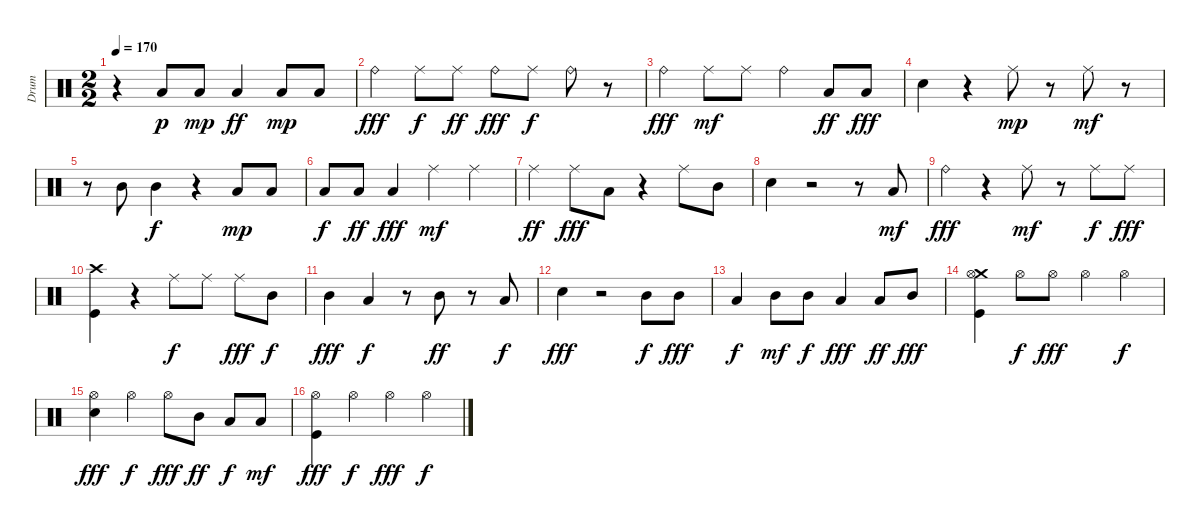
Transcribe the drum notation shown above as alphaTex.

\track ("Drum" "Drum") {instrument percussion}
\staff {score}
\articulation defaults
\ts (2 2)
\tempo 170
\clef neutral
\ks c
r.4{dy fff} "Low Tom (hit)".8{dy p} "Low Tom (hit)".8{dy mp} "Low Tom (hit)".4{dy ff} "Low Floor Tom (hit)".8{dy mp} "Low Floor Tom (hit)".8 |
"Ride (bell)".4{dy fff} "Ride (middle)".8{dy f} "Ride (middle)".8{dy ff} "Ride (bell)".8{dy fff} "Ride (middle)".8{dy f} "Ride (bell)".8 r.8 |
"Ride (bell)".4{dy fff} "Ride (middle)".8{dy mf} "Ride (middle)".8 "Ride (bell)".4 "Low Tom (hit)".8{dy ff} "Low Floor Tom (hit)".8{dy fff} |
"Electric Snare (hit)".4 r.4 "Ride (middle)".8{dy mp} r.8 "Ride (middle)".8{dy mf} r.8 |
r.8 "Mid Tom (hit)".8 "Mid Tom (hit)".4{dy f} r.4 "Low Floor Tom (hit)".8{dy mp} "Low Floor Tom (hit)".8 |
"Low Floor Tom (hit)".8{dy f} "Low Floor Tom (hit)".8{dy ff} "Low Floor Tom (hit)".4{dy fff} "Ride (middle)".4{dy mf} "Ride (middle)".4 |
"Ride (middle)".4{dy ff} "Ride (middle)".8{dy fff} "Low Floor Tom (hit)".8 r.4 "Ride (middle)".8 "Mid Tom (hit)".8 |
"Electric Snare (hit)".4 r.2 r.8 "Low Floor Tom (hit)".8{dy mf} |
"Ride (bell)".4{dy fff} r.4 "Ride (middle)".8{dy mf} r.8 "Ride (middle)".8{dy f} "Ride (middle)".8{dy fff} |
("Kick (hit)" "Crash high (hit)").4 r.4 "Ride (middle)".8{dy f} "Ride (middle)".8 "Ride (middle)".8{dy fff} "Mid Tom (hit)".8{dy f} |
"Mid Tom (hit)".4{dy fff} "Low Floor Tom (hit)".4{dy f} r.8 "Mid Tom (hit)".8{dy ff} r.8 "Low Floor Tom (hit)".8{dy f} |
"Electric Snare (hit)".4{dy fff} r.2 "Mid Tom (hit)".8{dy f} "Mid Tom (hit)".8{dy fff} |
"Low Floor Tom (hit)".4{dy f} "Mid Tom (hit)".8{dy mf} "Mid Tom (hit)".8{dy f} "Low Tom (hit)".4{dy fff} "Low Floor Tom (hit)".8{dy ff} "Mid Tom (hit)".8{dy fff} |
("Crash medium (hit)" "Hi-Hat (open)" "Kick (hit)").4 "Hi-Hat (open)".8{dy f} "Hi-Hat (open)".8{dy fff} "Hi-Hat (open)".4 "Hi-Hat (open)".4{dy f} |
("Electric Snare (hit)" "Hi-Hat (open)").4{dy fff} "Hi-Hat (open)".4{dy f} "Hi-Hat (open)".8{dy fff} "Mid Tom (hit)".8{dy ff} "Low Tom (hit)".8{dy f} "Low Floor Tom (hit)".8{dy mf} |
("Kick (hit)" "Hi-Hat (open)").4{dy fff} "Hi-Hat (open)".4{dy f} "Hi-Hat (open)".4{dy fff} "Hi-Hat (open)".4{dy f}
